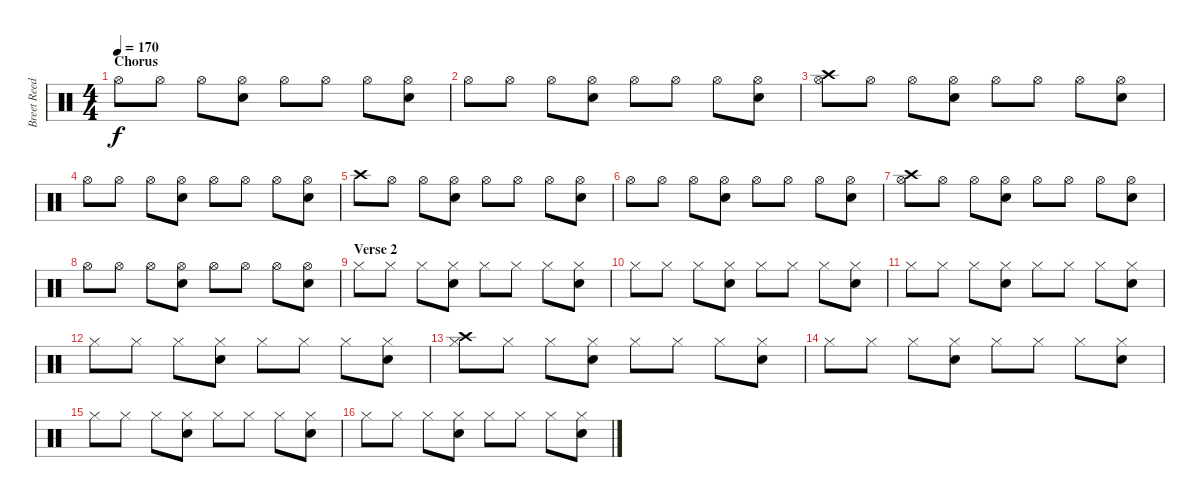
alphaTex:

\track ("Breet Reed" "Breet Reed") {instrument percussion}
\staff {score}
\articulation defaults
\ts (4 4)
\section ("" "Chorus")
\tempo 170
\clef neutral
\ks c "Hi-Hat (open)".8{dy f} "Hi-Hat (open)".8 "Hi-Hat (open)".8
("Snare (hit) 2" "Hi-Hat (open)").8 "Hi-Hat (open)".8 "Hi-Hat (open)".8 "Hi-Hat (open)".8 ("Snare (hit) 2" "Hi-Hat (open)").8 |
"Hi-Hat (open)".8 "Hi-Hat (open)".8 "Hi-Hat (open)".8 ("Snare (hit) 2" "Hi-Hat (open)").8 "Hi-Hat (open)".8 "Hi-Hat (open)".8 "Hi-Hat (open)".8 ("Snare (hit) 2" "Hi-Hat (open)").8 |
("Crash high (hit)" "Hi-Hat (open)").8 "Hi-Hat (open)".8 "Hi-Hat (open)".8 ("Snare (hit) 2" "Hi-Hat (open)").8 "Hi-Hat (open)".8 "Hi-Hat (open)".8 "Hi-Hat (open)".8 ("Snare (hit) 2" "Hi-Hat (open)").8 |
"Hi-Hat (open)".8 "Hi-Hat (open)".8 "Hi-Hat (open)".8 ("Snare (hit) 2" "Hi-Hat (open)").8 "Hi-Hat (open)".8 "Hi-Hat (open)".8 "Hi-Hat (open)".8 ("Snare (hit) 2" "Hi-Hat (open)").8 |
"Crash high (hit)".8 "Hi-Hat (open)".8 "Hi-Hat (open)".8 ("Snare (hit) 2" "Hi-Hat (open)").8 "Hi-Hat (open)".8 "Hi-Hat (open)".8 "Hi-Hat (open)".8 ("Snare (hit) 2" "Hi-Hat (open)").8 |
"Hi-Hat (open)".8 "Hi-Hat (open)".8 "Hi-Hat (open)".8 ("Snare (hit) 2" "Hi-Hat (open)").8 "Hi-Hat (open)".8 "Hi-Hat (open)".8 "Hi-Hat (open)".8 ("Snare (hit) 2" "Hi-Hat (open)").8 |
("Crash high (hit)" "Hi-Hat (open)").8 "Hi-Hat (open)".8 "Hi-Hat (open)".8 ("Snare (hit) 2" "Hi-Hat (open)").8 "Hi-Hat (open)".8 "Hi-Hat (open)".8 "Hi-Hat (open)".8 ("Snare (hit) 2" "Hi-Hat (open)").8 |
"Hi-Hat (open)".8 "Hi-Hat (open)".8 "Hi-Hat (open)".8 ("Snare (hit) 2" "Hi-Hat (open)").8 "Hi-Hat (open)".8 "Hi-Hat (open)".8 "Hi-Hat (open)".8 ("Snare (hit) 2" "Hi-Hat (open)").8 |
\section ("" "Verse 2")
"Hi-Hat (closed)".8 "Hi-Hat (closed)".8 "Hi-Hat (closed)".8 ("Snare (hit) 2" "Hi-Hat (closed)").8 "Hi-Hat (closed)".8 "Hi-Hat (closed)".8 "Hi-Hat (closed)".8 ("Snare (hit) 2" "Hi-Hat (closed)").8 |
"Hi-Hat (closed)".8 "Hi-Hat (closed)".8 "Hi-Hat (closed)".8 ("Snare (hit) 2" "Hi-Hat (closed)").8 "Hi-Hat (closed)".8 "Hi-Hat (closed)".8 "Hi-Hat (closed)".8 ("Snare (hit) 2" "Hi-Hat (closed)").8 |
"Hi-Hat (closed)".8 "Hi-Hat (closed)".8 "Hi-Hat (closed)".8 ("Snare (hit) 2" "Hi-Hat (closed)").8 "Hi-Hat (closed)".8 "Hi-Hat (closed)".8 "Hi-Hat (closed)".8 ("Snare (hit) 2" "Hi-Hat (closed)").8 |
"Hi-Hat (closed)".8 "Hi-Hat (closed)".8 "Hi-Hat (closed)".8 ("Snare (hit) 2" "Hi-Hat (closed)").8 "Hi-Hat (closed)".8 "Hi-Hat (closed)".8 "Hi-Hat (closed)".8 ("Snare (hit) 2" "Hi-Hat (closed)").8 |
("Crash high (hit)" "Hi-Hat (closed)").8 "Hi-Hat (closed)".8 "Hi-Hat (closed)".8 ("Snare (hit) 2" "Hi-Hat (closed)").8 "Hi-Hat (closed)".8 "Hi-Hat (closed)".8 "Hi-Hat (closed)".8 ("Snare (hit) 2" "Hi-Hat (closed)").8 |
"Hi-Hat (closed)".8 "Hi-Hat (closed)".8 "Hi-Hat (closed)".8 ("Snare (hit) 2" "Hi-Hat (closed)").8 "Hi-Hat (closed)".8 "Hi-Hat (closed)".8 "Hi-Hat (closed)".8 ("Snare (hit) 2" "Hi-Hat (closed)").8 |
"Hi-Hat (closed)".8 "Hi-Hat (closed)".8 "Hi-Hat (closed)".8 ("Snare (hit) 2" "Hi-Hat (closed)").8 "Hi-Hat (closed)".8 "Hi-Hat (closed)".8 "Hi-Hat (closed)".8 ("Snare (hit) 2" "Hi-Hat (closed)").8 |
"Hi-Hat (closed)".8 "Hi-Hat (closed)".8 "Hi-Hat (closed)".8 ("Snare (hit) 2" "Hi-Hat (closed)").8 "Hi-Hat (closed)".8 "Hi-Hat (closed)".8 "Hi-Hat (closed)".8 ("Snare (hit) 2" "Hi-Hat (closed)").8
